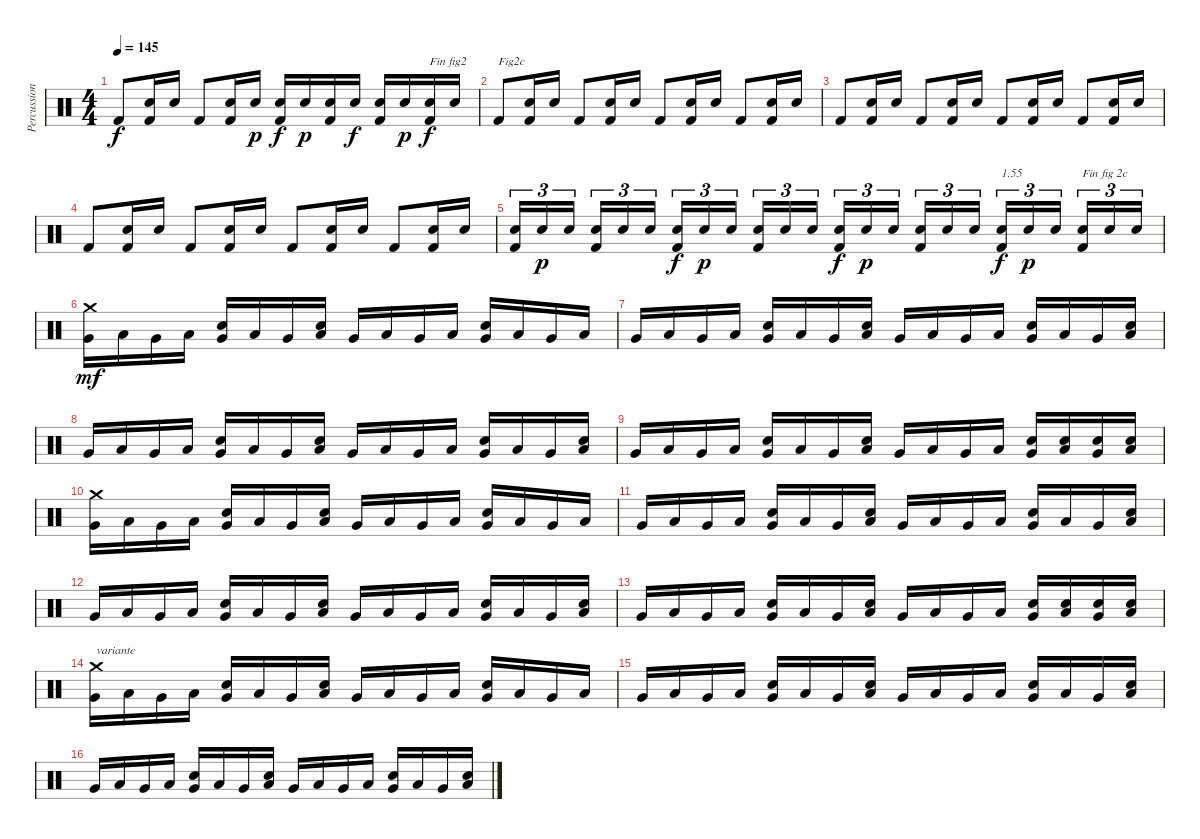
\track ("Percussions" "Percussion") {instrument percussion}
\staff {score}
\articulation defaults
\ts (4 4)
\tempo 145
\clef neutral
\ks c "Kick (hit) 2".8{dy f}
("Kick (hit) 2" "Electric Snare (hit)").16 "Electric Snare (hit)".16 "Kick (hit) 2".8 ("Kick (hit) 2" "Electric Snare (hit)").16 "Electric Snare (hit)".16{dy p} ("Kick (hit) 2" "Electric Snare (hit)").16{dy f} "Electric Snare (hit)".16{dy p} ("Kick (hit) 2" "Electric Snare (hit)").16 "Electric Snare (hit)".16{dy f} ("Kick (hit) 2" "Electric Snare (hit)").16 "Electric Snare (hit)".16{dy p} ("Kick (hit) 2" "Electric Snare (hit)").16{txt "Fin fig2" dy f} "Electric Snare (hit)".16 |
"Kick (hit) 2".8{txt "Fig2c"} ("Kick (hit) 2" "Electric Snare (hit)").16 "Electric Snare (hit)".16 "Kick (hit) 2".8 ("Kick (hit) 2" "Electric Snare (hit)").16 "Electric Snare (hit)".16 "Kick (hit) 2".8 ("Kick (hit) 2" "Electric Snare (hit)").16 "Electric Snare (hit)".16 "Kick (hit) 2".8 ("Kick (hit) 2" "Electric Snare (hit)").16 "Electric Snare (hit)".16 |
"Kick (hit) 2".8 ("Kick (hit) 2" "Electric Snare (hit)").16 "Electric Snare (hit)".16 "Kick (hit) 2".8 ("Kick (hit) 2" "Electric Snare (hit)").16 "Electric Snare (hit)".16 "Kick (hit) 2".8 ("Kick (hit) 2" "Electric Snare (hit)").16 "Electric Snare (hit)".16 "Kick (hit) 2".8 ("Kick (hit) 2" "Electric Snare (hit)").16 "Electric Snare (hit)".16 |
"Kick (hit) 2".8 ("Kick (hit) 2" "Electric Snare (hit)").16 "Electric Snare (hit)".16 "Kick (hit) 2".8 ("Kick (hit) 2" "Electric Snare (hit)").16 "Electric Snare (hit)".16 "Kick (hit) 2".8 ("Kick (hit) 2" "Electric Snare (hit)").16 "Electric Snare (hit)".16 "Kick (hit) 2".8 ("Kick (hit) 2" "Electric Snare (hit)").16 "Electric Snare (hit)".16 |
("Kick (hit) 2" "Electric Snare (hit)").16{tu (3 2)} "Electric Snare (hit)".16{tu (3 2) dy p} "Electric Snare (hit)".16{tu (3 2)} ("Kick (hit) 2" "Electric Snare (hit)").16{tu (3 2)} "Electric Snare (hit)".16{tu (3 2)} "Electric Snare (hit)".16{tu (3 2)} ("Kick (hit) 2" "Electric Snare (hit)").16{tu (3 2) dy f} "Electric Snare (hit)".16{tu (3 2) dy p} "Electric Snare (hit)".16{tu (3 2)} ("Kick (hit) 2" "Electric Snare (hit)").16{tu (3 2)} "Electric Snare (hit)".16{tu (3 2)} "Electric Snare (hit)".16{tu (3 2)} ("Kick (hit) 2" "Electric Snare (hit)").16{tu (3 2) dy f} "Electric Snare (hit)".16{tu (3 2) dy p} "Electric Snare (hit)".16{tu (3 2)} ("Kick (hit) 2" "Electric Snare (hit)").16{tu (3 2)} "Electric Snare (hit)".16{tu (3 2)} "Electric Snare (hit)".16{tu (3 2)} ("Kick (hit) 2" "Electric Snare (hit)").16{tu (3 2) txt "1.55" dy f} "Electric Snare (hit)".16{tu (3 2) dy p} "Electric Snare (hit)".16{tu (3 2)} ("Kick (hit) 2" "Electric Snare (hit)").16{tu (3 2) txt "Fin fig 2c"} "Electric Snare (hit)".16{tu (3 2)} "Electric Snare (hit)".16{tu (3 2)} |
("Very Low Tom (hit)" "Crash medium (hit)").16{dy mf} "Low Tom (hit)".16 "Very Low Tom (hit)".16 "Low Tom (hit)".16 ("Very Low Tom (hit)" "Electric Snare (hit)").16 "Low Tom (hit)".16 "Very Low Tom (hit)".16 ("Low Tom (hit)" "Electric Snare (hit)").16 "Very Low Tom (hit)".16 "Low Tom (hit)".16 "Very Low Tom (hit)".16 "Low Tom (hit)".16 ("Very Low Tom (hit)" "Electric Snare (hit)").16 "Low Tom (hit)".16 "Very Low Tom (hit)".16 "Low Tom (hit)".16 |
"Very Low Tom (hit)".16 "Low Tom (hit)".16 "Very Low Tom (hit)".16 "Low Tom (hit)".16 ("Very Low Tom (hit)" "Electric Snare (hit)").16 "Low Tom (hit)".16 "Very Low Tom (hit)".16 ("Low Tom (hit)" "Electric Snare (hit)").16 "Very Low Tom (hit)".16 "Low Tom (hit)".16 "Very Low Tom (hit)".16 "Low Tom (hit)".16 ("Very Low Tom (hit)" "Electric Snare (hit)").16 "Low Tom (hit)".16 "Very Low Tom (hit)".16 ("Low Tom (hit)" "Electric Snare (hit)").16 |
"Very Low Tom (hit)".16 "Low Tom (hit)".16 "Very Low Tom (hit)".16 "Low Tom (hit)".16 ("Very Low Tom (hit)" "Electric Snare (hit)").16 "Low Tom (hit)".16 "Very Low Tom (hit)".16 ("Low Tom (hit)" "Electric Snare (hit)").16 "Very Low Tom (hit)".16 "Low Tom (hit)".16 "Very Low Tom (hit)".16 "Low Tom (hit)".16 ("Very Low Tom (hit)" "Electric Snare (hit)").16 "Low Tom (hit)".16 "Very Low Tom (hit)".16 ("Low Tom (hit)" "Electric Snare (hit)").16 |
"Very Low Tom (hit)".16 "Low Tom (hit)".16 "Very Low Tom (hit)".16 "Low Tom (hit)".16 ("Very Low Tom (hit)" "Electric Snare (hit)").16 "Low Tom (hit)".16 "Very Low Tom (hit)".16 ("Low Tom (hit)" "Electric Snare (hit)").16 "Very Low Tom (hit)".16 "Low Tom (hit)".16 "Very Low Tom (hit)".16 "Low Tom (hit)".16 ("Very Low Tom (hit)" "Electric Snare (hit)").16 ("Low Tom (hit)" "Electric Snare (hit)").16 ("Very Low Tom (hit)" "Electric Snare (hit)").16 ("Low Tom (hit)" "Electric Snare (hit)").16 |
("Very Low Tom (hit)" "Crash medium (hit)").16 "Low Tom (hit)".16 "Very Low Tom (hit)".16 "Low Tom (hit)".16 ("Very Low Tom (hit)" "Electric Snare (hit)").16 "Low Tom (hit)".16 "Very Low Tom (hit)".16 ("Low Tom (hit)" "Electric Snare (hit)").16 "Very Low Tom (hit)".16 "Low Tom (hit)".16 "Very Low Tom (hit)".16 "Low Tom (hit)".16 ("Very Low Tom (hit)" "Electric Snare (hit)").16 "Low Tom (hit)".16 "Very Low Tom (hit)".16 "Low Tom (hit)".16 |
"Very Low Tom (hit)".16 "Low Tom (hit)".16 "Very Low Tom (hit)".16 "Low Tom (hit)".16 ("Very Low Tom (hit)" "Electric Snare (hit)").16 "Low Tom (hit)".16 "Very Low Tom (hit)".16 ("Low Tom (hit)" "Electric Snare (hit)").16 "Very Low Tom (hit)".16 "Low Tom (hit)".16 "Very Low Tom (hit)".16 "Low Tom (hit)".16 ("Very Low Tom (hit)" "Electric Snare (hit)").16 "Low Tom (hit)".16 "Very Low Tom (hit)".16 ("Low Tom (hit)" "Electric Snare (hit)").16 |
"Very Low Tom (hit)".16 "Low Tom (hit)".16 "Very Low Tom (hit)".16 "Low Tom (hit)".16 ("Very Low Tom (hit)" "Electric Snare (hit)").16 "Low Tom (hit)".16 "Very Low Tom (hit)".16 ("Low Tom (hit)" "Electric Snare (hit)").16 "Very Low Tom (hit)".16 "Low Tom (hit)".16 "Very Low Tom (hit)".16 "Low Tom (hit)".16 ("Very Low Tom (hit)" "Electric Snare (hit)").16 "Low Tom (hit)".16 "Very Low Tom (hit)".16 ("Low Tom (hit)" "Electric Snare (hit)").16 |
"Very Low Tom (hit)".16 "Low Tom (hit)".16 "Very Low Tom (hit)".16 "Low Tom (hit)".16 ("Very Low Tom (hit)" "Electric Snare (hit)").16 "Low Tom (hit)".16 "Very Low Tom (hit)".16 ("Low Tom (hit)" "Electric Snare (hit)").16 "Very Low Tom (hit)".16 "Low Tom (hit)".16 "Very Low Tom (hit)".16 "Low Tom (hit)".16 ("Very Low Tom (hit)" "Electric Snare (hit)").16 ("Low Tom (hit)" "Electric Snare (hit)").16 ("Very Low Tom (hit)" "Electric Snare (hit)").16 ("Low Tom (hit)" "Electric Snare (hit)").16 |
("Very Low Tom (hit)" "Crash medium (hit)").16{txt "variante"} "Low Tom (hit)".16 "Very Low Tom (hit)".16 "Low Tom (hit)".16 ("Very Low Tom (hit)" "Electric Snare (hit)").16 "Low Tom (hit)".16 "Very Low Tom (hit)".16 ("Low Tom (hit)" "Electric Snare (hit)").16 "Very Low Tom (hit)".16 "Low Tom (hit)".16 "Very Low Tom (hit)".16 "Low Tom (hit)".16 ("Very Low Tom (hit)" "Electric Snare (hit)").16 "Low Tom (hit)".16 "Very Low Tom (hit)".16 "Low Tom (hit)".16 |
"Very Low Tom (hit)".16 "Low Tom (hit)".16 "Very Low Tom (hit)".16 "Low Tom (hit)".16 ("Very Low Tom (hit)" "Electric Snare (hit)").16 "Low Tom (hit)".16 "Very Low Tom (hit)".16 ("Low Tom (hit)" "Electric Snare (hit)").16 "Very Low Tom (hit)".16 "Low Tom (hit)".16 "Very Low Tom (hit)".16 "Low Tom (hit)".16 ("Very Low Tom (hit)" "Electric Snare (hit)").16 "Low Tom (hit)".16 "Very Low Tom (hit)".16 ("Low Tom (hit)" "Electric Snare (hit)").16 |
"Very Low Tom (hit)".16 "Low Tom (hit)".16 "Very Low Tom (hit)".16 "Low Tom (hit)".16 ("Very Low Tom (hit)" "Electric Snare (hit)").16 "Low Tom (hit)".16 "Very Low Tom (hit)".16 ("Low Tom (hit)" "Electric Snare (hit)").16 "Very Low Tom (hit)".16 "Low Tom (hit)".16 "Very Low Tom (hit)".16 "Low Tom (hit)".16 ("Very Low Tom (hit)" "Electric Snare (hit)").16 "Low Tom (hit)".16 "Very Low Tom (hit)".16 ("Low Tom (hit)" "Electric Snare (hit)").16
